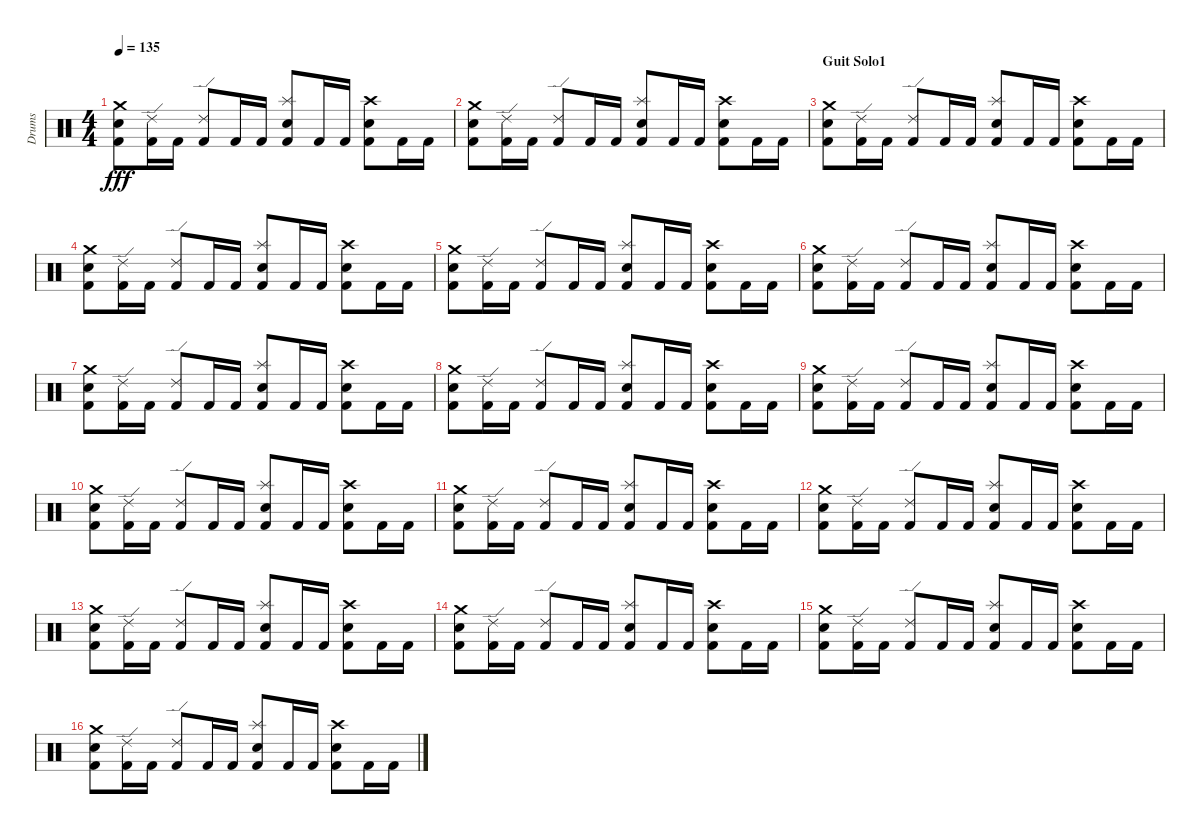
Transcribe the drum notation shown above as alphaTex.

\track ("Drums" "Drums") {instrument percussion}
\staff {score}
\articulation defaults
\ts (4 4)
\tempo 135
\clef neutral
\ks c
("Crash medium (hit)" "Electric Snare (hit)" "Kick (hit) 2").8{dy fff} ("Ride (edge) 2" "Kick (hit) 2").16 "Kick (hit) 2".16 ("Ride (edge) 2" "Kick (hit) 2").8 "Kick (hit) 2".16 "Kick (hit) 2".16 ("Splash (hit)" "Snare (hit) 2" "Kick (hit) 2").8 "Kick (hit) 2".16 "Kick (hit) 2".16 ("Crash high (hit)" "Snare (hit) 2" "Kick (hit) 2").8 "Kick (hit) 2".16 "Kick (hit) 2".16 |
("Crash medium (hit)" "Electric Snare (hit)" "Kick (hit) 2").8 ("Ride (edge) 2" "Kick (hit) 2").16 "Kick (hit) 2".16 ("Ride (edge) 2" "Kick (hit) 2").8 "Kick (hit) 2".16 "Kick (hit) 2".16 ("Splash (hit)" "Snare (hit) 2" "Kick (hit) 2").8 "Kick (hit) 2".16 "Kick (hit) 2".16 ("Crash high (hit)" "Snare (hit) 2" "Kick (hit) 2").8 "Kick (hit) 2".16 "Kick (hit) 2".16 |
\section ("" "Guit Solo1")
("Crash medium (hit)" "Electric Snare (hit)" "Kick (hit) 2").8 ("Ride (edge) 2" "Kick (hit) 2").16 "Kick (hit) 2".16 ("Ride (edge) 2" "Kick (hit) 2").8 "Kick (hit) 2".16 "Kick (hit) 2".16 ("Splash (hit)" "Snare (hit) 2" "Kick (hit) 2").8 "Kick (hit) 2".16 "Kick (hit) 2".16 ("Crash high (hit)" "Snare (hit) 2" "Kick (hit) 2").8 "Kick (hit) 2".16 "Kick (hit) 2".16 |
("Crash medium (hit)" "Electric Snare (hit)" "Kick (hit) 2").8 ("Ride (edge) 2" "Kick (hit) 2").16 "Kick (hit) 2".16 ("Ride (edge) 2" "Kick (hit) 2").8 "Kick (hit) 2".16 "Kick (hit) 2".16 ("Splash (hit)" "Snare (hit) 2" "Kick (hit) 2").8 "Kick (hit) 2".16 "Kick (hit) 2".16 ("Crash high (hit)" "Snare (hit) 2" "Kick (hit) 2").8 "Kick (hit) 2".16 "Kick (hit) 2".16 |
("Crash medium (hit)" "Electric Snare (hit)" "Kick (hit) 2").8 ("Ride (edge) 2" "Kick (hit) 2").16 "Kick (hit) 2".16 ("Ride (edge) 2" "Kick (hit) 2").8 "Kick (hit) 2".16 "Kick (hit) 2".16 ("Splash (hit)" "Snare (hit) 2" "Kick (hit) 2").8 "Kick (hit) 2".16 "Kick (hit) 2".16 ("Crash high (hit)" "Snare (hit) 2" "Kick (hit) 2").8 "Kick (hit) 2".16 "Kick (hit) 2".16 |
("Crash medium (hit)" "Electric Snare (hit)" "Kick (hit) 2").8 ("Ride (edge) 2" "Kick (hit) 2").16 "Kick (hit) 2".16 ("Ride (edge) 2" "Kick (hit) 2").8 "Kick (hit) 2".16 "Kick (hit) 2".16 ("Splash (hit)" "Snare (hit) 2" "Kick (hit) 2").8 "Kick (hit) 2".16 "Kick (hit) 2".16 ("Crash high (hit)" "Snare (hit) 2" "Kick (hit) 2").8 "Kick (hit) 2".16 "Kick (hit) 2".16 |
("Crash medium (hit)" "Electric Snare (hit)" "Kick (hit) 2").8 ("Ride (edge) 2" "Kick (hit) 2").16 "Kick (hit) 2".16 ("Ride (edge) 2" "Kick (hit) 2").8 "Kick (hit) 2".16 "Kick (hit) 2".16 ("Splash (hit)" "Snare (hit) 2" "Kick (hit) 2").8 "Kick (hit) 2".16 "Kick (hit) 2".16 ("Crash high (hit)" "Snare (hit) 2" "Kick (hit) 2").8 "Kick (hit) 2".16 "Kick (hit) 2".16 |
("Crash medium (hit)" "Electric Snare (hit)" "Kick (hit) 2").8 ("Ride (edge) 2" "Kick (hit) 2").16 "Kick (hit) 2".16 ("Ride (edge) 2" "Kick (hit) 2").8 "Kick (hit) 2".16 "Kick (hit) 2".16 ("Splash (hit)" "Snare (hit) 2" "Kick (hit) 2").8 "Kick (hit) 2".16 "Kick (hit) 2".16 ("Crash high (hit)" "Snare (hit) 2" "Kick (hit) 2").8 "Kick (hit) 2".16 "Kick (hit) 2".16 |
("Crash medium (hit)" "Electric Snare (hit)" "Kick (hit) 2").8 ("Ride (edge) 2" "Kick (hit) 2").16 "Kick (hit) 2".16 ("Ride (edge) 2" "Kick (hit) 2").8 "Kick (hit) 2".16 "Kick (hit) 2".16 ("Splash (hit)" "Snare (hit) 2" "Kick (hit) 2").8 "Kick (hit) 2".16 "Kick (hit) 2".16 ("Crash high (hit)" "Snare (hit) 2" "Kick (hit) 2").8 "Kick (hit) 2".16 "Kick (hit) 2".16 |
("Crash medium (hit)" "Electric Snare (hit)" "Kick (hit) 2").8 ("Ride (edge) 2" "Kick (hit) 2").16 "Kick (hit) 2".16 ("Ride (edge) 2" "Kick (hit) 2").8 "Kick (hit) 2".16 "Kick (hit) 2".16 ("Splash (hit)" "Snare (hit) 2" "Kick (hit) 2").8 "Kick (hit) 2".16 "Kick (hit) 2".16 ("Crash high (hit)" "Snare (hit) 2" "Kick (hit) 2").8 "Kick (hit) 2".16 "Kick (hit) 2".16 |
("Crash medium (hit)" "Electric Snare (hit)" "Kick (hit) 2").8 ("Ride (edge) 2" "Kick (hit) 2").16 "Kick (hit) 2".16 ("Ride (edge) 2" "Kick (hit) 2").8 "Kick (hit) 2".16 "Kick (hit) 2".16 ("Splash (hit)" "Snare (hit) 2" "Kick (hit) 2").8 "Kick (hit) 2".16 "Kick (hit) 2".16 ("Crash high (hit)" "Snare (hit) 2" "Kick (hit) 2").8 "Kick (hit) 2".16 "Kick (hit) 2".16 |
("Crash medium (hit)" "Electric Snare (hit)" "Kick (hit) 2").8 ("Ride (edge) 2" "Kick (hit) 2").16 "Kick (hit) 2".16 ("Ride (edge) 2" "Kick (hit) 2").8 "Kick (hit) 2".16 "Kick (hit) 2".16 ("Splash (hit)" "Snare (hit) 2" "Kick (hit) 2").8 "Kick (hit) 2".16 "Kick (hit) 2".16 ("Crash high (hit)" "Snare (hit) 2" "Kick (hit) 2").8 "Kick (hit) 2".16 "Kick (hit) 2".16 |
("Crash medium (hit)" "Electric Snare (hit)" "Kick (hit) 2").8 ("Ride (edge) 2" "Kick (hit) 2").16 "Kick (hit) 2".16 ("Ride (edge) 2" "Kick (hit) 2").8 "Kick (hit) 2".16 "Kick (hit) 2".16 ("Splash (hit)" "Snare (hit) 2" "Kick (hit) 2").8 "Kick (hit) 2".16 "Kick (hit) 2".16 ("Crash high (hit)" "Snare (hit) 2" "Kick (hit) 2").8 "Kick (hit) 2".16 "Kick (hit) 2".16 |
("Crash medium (hit)" "Electric Snare (hit)" "Kick (hit) 2").8 ("Ride (edge) 2" "Kick (hit) 2").16 "Kick (hit) 2".16 ("Ride (edge) 2" "Kick (hit) 2").8 "Kick (hit) 2".16 "Kick (hit) 2".16 ("Splash (hit)" "Snare (hit) 2" "Kick (hit) 2").8 "Kick (hit) 2".16 "Kick (hit) 2".16 ("Crash high (hit)" "Snare (hit) 2" "Kick (hit) 2").8 "Kick (hit) 2".16 "Kick (hit) 2".16 |
("Crash medium (hit)" "Electric Snare (hit)" "Kick (hit) 2").8 ("Ride (edge) 2" "Kick (hit) 2").16 "Kick (hit) 2".16 ("Ride (edge) 2" "Kick (hit) 2").8 "Kick (hit) 2".16 "Kick (hit) 2".16 ("Splash (hit)" "Snare (hit) 2" "Kick (hit) 2").8 "Kick (hit) 2".16 "Kick (hit) 2".16 ("Crash high (hit)" "Snare (hit) 2" "Kick (hit) 2").8 "Kick (hit) 2".16 "Kick (hit) 2".16 |
("Crash medium (hit)" "Electric Snare (hit)" "Kick (hit) 2").8 ("Ride (edge) 2" "Kick (hit) 2").16 "Kick (hit) 2".16 ("Ride (edge) 2" "Kick (hit) 2").8 "Kick (hit) 2".16 "Kick (hit) 2".16 ("Splash (hit)" "Snare (hit) 2" "Kick (hit) 2").8 "Kick (hit) 2".16 "Kick (hit) 2".16 ("Crash high (hit)" "Snare (hit) 2" "Kick (hit) 2").8 "Kick (hit) 2".16 "Kick (hit) 2".16
